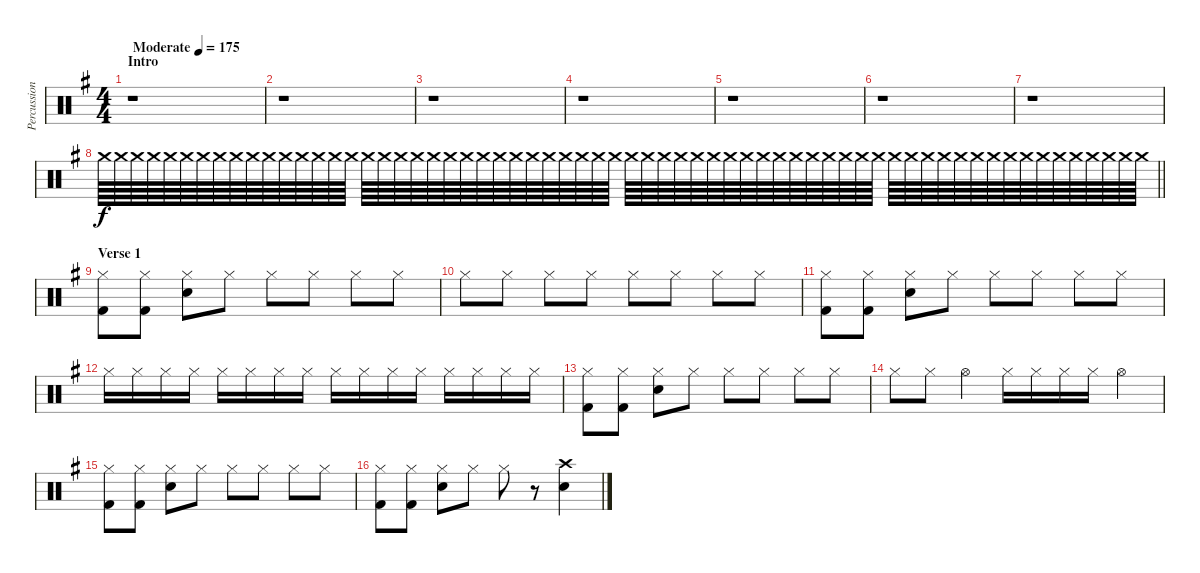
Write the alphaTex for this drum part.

\track ("Percussion" "Percussion") {instrument percussion}
\staff {score}
\articulation defaults
\ts (4 4)
\section ("" "Intro")
\tempo (175 "Moderate")
\clef neutral
\ks g
r.1{dy f} |
r.1 |
r.1 |
r.1 |
r.1 |
r.1 |
r.1 |
\barLineRight lightlight "Crash medium (hit)".64 "Crash medium (hit)".64 "Crash medium (hit)".64 "Crash medium (hit)".64 "Crash medium (hit)".64 "Crash medium (hit)".64 "Crash medium (hit)".64 "Crash medium (hit)".64 "Crash medium (hit)".64 "Crash medium (hit)".64 "Crash medium (hit)".64 "Crash medium (hit)".64 "Crash medium (hit)".64 "Crash medium (hit)".64 "Crash medium (hit)".64 "Crash medium (hit)".64 "Crash medium (hit)".64 "Crash medium (hit)".64 "Crash medium (hit)".64 "Crash medium (hit)".64 "Crash medium (hit)".64 "Crash medium (hit)".64 "Crash medium (hit)".64 "Crash medium (hit)".64 "Crash medium (hit)".64 "Crash medium (hit)".64 "Crash medium (hit)".64 "Crash medium (hit)".64 "Crash medium (hit)".64 "Crash medium (hit)".64 "Crash medium (hit)".64 "Crash medium (hit)".64 "Crash medium (hit)".64 "Crash medium (hit)".64 "Crash medium (hit)".64 "Crash medium (hit)".64 "Crash medium (hit)".64 "Crash medium (hit)".64 "Crash medium (hit)".64 "Crash medium (hit)".64 "Crash medium (hit)".64 "Crash medium (hit)".64 "Crash medium (hit)".64 "Crash medium (hit)".64 "Crash medium (hit)".64 "Crash medium (hit)".64 "Crash medium (hit)".64 "Crash medium (hit)".64 "Crash medium (hit)".64 "Crash medium (hit)".64 "Crash medium (hit)".64 "Crash medium (hit)".64 "Crash medium (hit)".64 "Crash medium (hit)".64 "Crash medium (hit)".64 "Crash medium (hit)".64 "Crash medium (hit)".64 "Crash medium (hit)".64 "Crash medium (hit)".64 "Crash medium (hit)".64 "Crash medium (hit)".64 "Crash medium (hit)".64 "Crash medium (hit)".64 "Crash medium (hit)".64
|
\section ("" "Verse 1")
("Hi-Hat (closed)" "Kick (hit) 2").8 ("Hi-Hat (closed)" "Kick (hit) 2").8 ("Hi-Hat (closed)" "Snare (hit) 2").8 "Hi-Hat (closed)".8 "Hi-Hat (closed)".8 "Hi-Hat (closed)".8 "Hi-Hat (closed)".8 "Hi-Hat (closed)".8 |
"Hi-Hat (closed)".8 "Hi-Hat (closed)".8 "Hi-Hat (closed)".8 "Hi-Hat (closed)".8 "Hi-Hat (closed)".8 "Hi-Hat (closed)".8 "Hi-Hat (closed)".8 "Hi-Hat (closed)".8 |
("Hi-Hat (closed)" "Kick (hit) 2").8 ("Hi-Hat (closed)" "Kick (hit) 2").8 ("Hi-Hat (closed)" "Snare (hit) 2").8 "Hi-Hat (closed)".8 "Hi-Hat (closed)".8 "Hi-Hat (closed)".8 "Hi-Hat (closed)".8 "Hi-Hat (closed)".8 |
"Hi-Hat (closed)".16 "Hi-Hat (closed)".16 "Hi-Hat (closed)".16 "Hi-Hat (closed)".16 "Hi-Hat (closed)".16 "Hi-Hat (closed)".16 "Hi-Hat (closed)".16 "Hi-Hat (closed)".16 "Hi-Hat (closed)".16 "Hi-Hat (closed)".16 "Hi-Hat (closed)".16 "Hi-Hat (closed)".16 "Hi-Hat (closed)".16 "Hi-Hat (closed)".16 "Hi-Hat (closed)".16 "Hi-Hat (closed)".16 |
("Hi-Hat (closed)" "Kick (hit) 2").8 ("Hi-Hat (closed)" "Kick (hit) 2").8 ("Hi-Hat (closed)" "Snare (hit) 2").8 "Hi-Hat (closed)".8 "Hi-Hat (closed)".8 "Hi-Hat (closed)".8 "Hi-Hat (closed)".8 "Hi-Hat (closed)".8 |
"Hi-Hat (closed)".8 "Hi-Hat (closed)".8 "Hi-Hat (open)".4 "Hi-Hat (closed)".16 "Hi-Hat (closed)".16 "Hi-Hat (closed)".16 "Hi-Hat (closed)".16 "Hi-Hat (open)".4 |
("Hi-Hat (closed)" "Kick (hit) 2").8 ("Hi-Hat (closed)" "Kick (hit) 2").8 ("Hi-Hat (closed)" "Snare (hit) 2").8 "Hi-Hat (closed)".8 "Hi-Hat (closed)".8 "Hi-Hat (closed)".8 "Hi-Hat (closed)".8 "Hi-Hat (closed)".8 |
("Hi-Hat (closed)" "Kick (hit) 2").8 ("Hi-Hat (closed)" "Kick (hit) 2").8 ("Hi-Hat (closed)" "Snare (hit) 2").8 "Hi-Hat (closed)".8 "Hi-Hat (closed)".8 r.8 ("Crash high (hit)" "Snare (hit) 2").4
